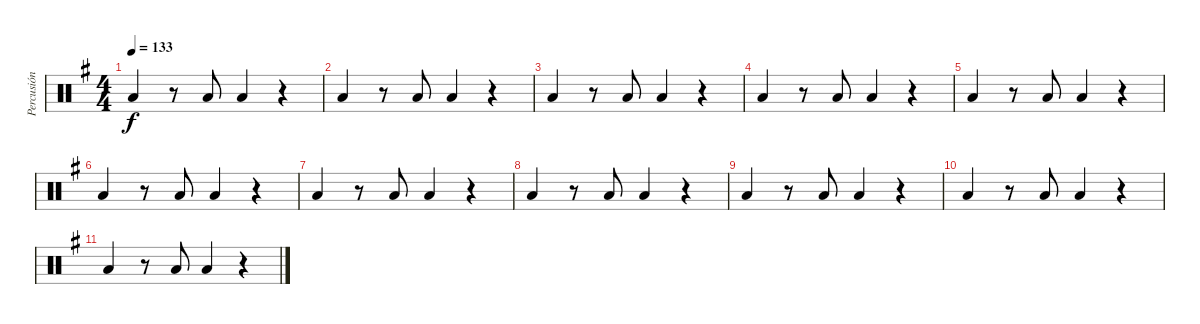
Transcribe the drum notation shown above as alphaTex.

\track ("Percusión" "Percusión") {instrument percussion}
\staff {score}
\articulation defaults
\ts (4 4)
\tempo 133
\clef neutral
\ks g "Low Floor Tom (hit)".4{dy f}
r.8 "Low Floor Tom (hit)".8 "Low Floor Tom (hit)".4 r.4 |
"Low Floor Tom (hit)".4 r.8 "Low Floor Tom (hit)".8 "Low Floor Tom (hit)".4 r.4 |
"Low Floor Tom (hit)".4 r.8 "Low Floor Tom (hit)".8 "Low Floor Tom (hit)".4 r.4 |
"Low Floor Tom (hit)".4 r.8 "Low Floor Tom (hit)".8 "Low Floor Tom (hit)".4 r.4 |
"Low Floor Tom (hit)".4 r.8 "Low Floor Tom (hit)".8 "Low Floor Tom (hit)".4 r.4 |
"Low Floor Tom (hit)".4 r.8 "Low Floor Tom (hit)".8 "Low Floor Tom (hit)".4 r.4 |
"Low Floor Tom (hit)".4 r.8 "Low Floor Tom (hit)".8 "Low Floor Tom (hit)".4 r.4 |
"Low Floor Tom (hit)".4 r.8 "Low Floor Tom (hit)".8 "Low Floor Tom (hit)".4 r.4 |
"Low Floor Tom (hit)".4 r.8 "Low Floor Tom (hit)".8 "Low Floor Tom (hit)".4 r.4 |
"Low Floor Tom (hit)".4 r.8 "Low Floor Tom (hit)".8 "Low Floor Tom (hit)".4 r.4 |
"Low Floor Tom (hit)".4 r.8 "Low Floor Tom (hit)".8 "Low Floor Tom (hit)".4 r.4
